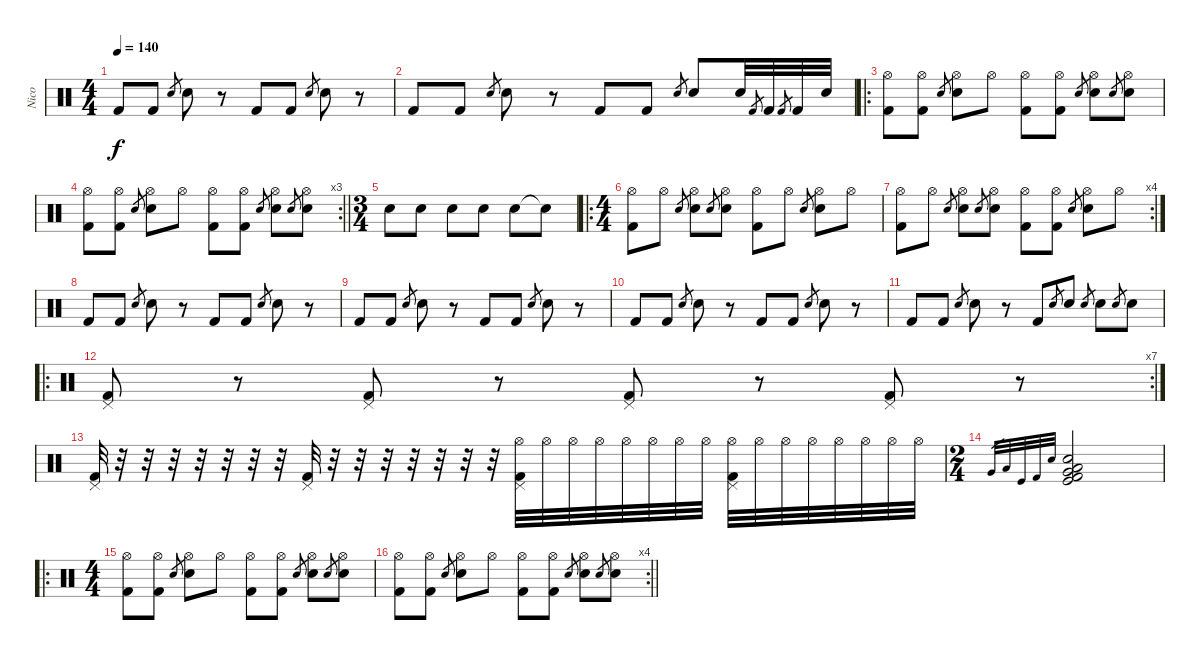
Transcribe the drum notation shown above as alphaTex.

\track ("Nico" "Nico") {instrument percussion}
\staff {score}
\articulation defaults
\ts (4 4)
\tempo 140
\clef neutral
\ks c "Kick (hit) 2".8{dy f} "Kick (hit) 2".8 "Snare (hit) 2".8{gr} "Snare (hit) 2".8
r.8 "Kick (hit) 2".8 "Kick (hit) 2".8 "Snare (hit) 2".8{gr} "Snare (hit) 2".8 r.8 |
"Kick (hit) 2".8 "Kick (hit) 2".8 "Snare (hit) 2".8{gr} "Snare (hit) 2".8 r.8 "Kick (hit) 2".8 "Kick (hit) 2".8 "Snare (hit) 2".8{gr} "Snare (hit) 2".8 "Snare (hit) 2".32 "Kick (hit) 2".8{gr} "Kick (hit) 2".32 "Kick (hit) 2".8{gr} "Kick (hit) 2".32 "Snare (hit) 2".32 |
\ro
("Kick (hit) 2" "Hi-Hat (open)").8 ("Kick (hit) 2" "Hi-Hat (open)").8 "Snare (hit) 2".8{gr} ("Snare (hit) 2" "Hi-Hat (open)").8 "Hi-Hat (open)".8 ("Kick (hit) 2" "Hi-Hat (open)").8 ("Kick (hit) 2" "Hi-Hat (open)").8 "Snare (hit) 2".8{gr} ("Snare (hit) 2" "Hi-Hat (open)").8 "Snare (hit) 2".8{gr} ("Snare (hit) 2" "Hi-Hat (open)").8 |
\rc 3
\barLineRight lightlight
("Kick (hit) 2" "Hi-Hat (open)").8 ("Kick (hit) 2" "Hi-Hat (open)").8 "Snare (hit) 2".8{gr} ("Snare (hit) 2" "Hi-Hat (open)").8 "Hi-Hat (open)".8 ("Kick (hit) 2" "Hi-Hat (open)").8 ("Kick (hit) 2" "Hi-Hat (open)").8 "Snare (hit) 2".8{gr} ("Snare (hit) 2" "Hi-Hat (open)").8 "Snare (hit) 2".8{gr} ("Snare (hit) 2" "Hi-Hat (open)").8 |
\ts (3 4)
"Snare (hit) 2".8 "Snare (hit) 2".8 "Snare (hit) 2".8 "Snare (hit) 2".8 "Snare (hit) 2".8 "Snare (hit)"{t}.8 |
\ro
\ts (4 4)
("Hi-Hat (open)" "Kick (hit) 2").8 "Hi-Hat (open)".8 "Snare (hit) 2".8{gr} ("Hi-Hat (open)" "Snare (hit) 2").8 "Snare (hit) 2".8{gr} ("Hi-Hat (open)" "Snare (hit) 2").8 ("Hi-Hat (open)" "Kick (hit) 2").8 "Hi-Hat (open)".8 "Snare (hit) 2".8{gr} ("Hi-Hat (open)" "Snare (hit) 2").8 "Hi-Hat (open)".8 |
\rc 4
("Hi-Hat (open)" "Kick (hit) 2").8 "Hi-Hat (open)".8 "Snare (hit) 2".8{gr} ("Hi-Hat (open)" "Snare (hit) 2").8 "Snare (hit) 2".8{gr} ("Hi-Hat (open)" "Snare (hit) 2").8 ("Hi-Hat (open)" "Kick (hit) 2").8 ("Hi-Hat (open)" "Kick (hit) 2").8 "Snare (hit) 2".8{gr} ("Hi-Hat (open)" "Snare (hit) 2").8 "Hi-Hat (open)".8 |
"Kick (hit) 2".8 "Kick (hit) 2".8 "Snare (hit) 2".8{gr} "Snare (hit) 2".8 r.8 "Kick (hit) 2".8 "Kick (hit) 2".8 "Snare (hit) 2".8{gr} "Snare (hit) 2".8 r.8 |
"Kick (hit) 2".8 "Kick (hit) 2".8 "Snare (hit) 2".8{gr} "Snare (hit) 2".8 r.8 "Kick (hit) 2".8 "Kick (hit) 2".8 "Snare (hit) 2".8{gr} "Snare (hit) 2".8 r.8 |
"Kick (hit) 2".8 "Kick (hit) 2".8 "Snare (hit) 2".8{gr} "Snare (hit) 2".8 r.8 "Kick (hit) 2".8 "Kick (hit) 2".8 "Snare (hit) 2".8{gr} "Snare (hit) 2".8 r.8 |
"Kick (hit) 2".8 "Kick (hit) 2".8 "Snare (hit) 2".8{gr} "Snare (hit) 2".8 r.8 "Kick (hit) 2".8 "Snare (hit) 2".8{gr} "Snare (hit) 2".8 "Snare (hit) 2".8{gr} "Snare (hit) 2".8 "Snare (hit) 2".8{gr} "Snare (hit) 2".8 |
\ro
\rc 7
("Kick (hit) 2" "Pedal Hi-Hat (hit)").8 r.8 ("Kick (hit) 2" "Pedal Hi-Hat (hit)").8 r.8 ("Kick (hit) 2" "Pedal Hi-Hat (hit)").8 r.8 ("Kick (hit) 2" "Pedal Hi-Hat (hit)").8 r.8 |
("Kick (hit) 2" "Pedal Hi-Hat (hit)").32 r.32 r.32 r.32 r.32 r.32 r.32 r.32 ("Kick (hit) 2" "Pedal Hi-Hat (hit)").32 r.32 r.32 r.32 r.32 r.32 r.32 r.32 ("Kick (hit) 2" "Pedal Hi-Hat (hit)" "Hi-Hat (open)").32 "Hi-Hat (open)".32 "Hi-Hat (open)".32 "Hi-Hat (open)".32 "Hi-Hat (open)".32 "Hi-Hat (open)".32 "Hi-Hat (open)".32 "Hi-Hat (open)".32 ("Kick (hit) 2" "Pedal Hi-Hat (hit)" "Hi-Hat (open)").32 "Hi-Hat (open)".32 "Hi-Hat (open)".32 "Hi-Hat (open)".32 "Hi-Hat (open)".32 "Hi-Hat (open)".32 "Hi-Hat (open)".32 "Hi-Hat (open)".32 |
\ts (2 4)
"Very Low Tom (hit)".32{gr} "Low Floor Tom (hit)".32{gr} "Kick (hit)".32{gr} "Kick (hit) 2".32{gr} "Electric Snare (hit)".32{gr} ("Very Low Tom (hit)" "Low Floor Tom (hit)" "Kick (hit)" "Kick (hit) 2" "Electric Snare (hit)").2 |
\ro
\ts (4 4)
("Kick (hit) 2" "Hi-Hat (open)").8 ("Kick (hit) 2" "Hi-Hat (open)").8 "Snare (hit) 2".8{gr} ("Snare (hit) 2" "Hi-Hat (open)").8 "Hi-Hat (open)".8 ("Kick (hit) 2" "Hi-Hat (open)").8 ("Kick (hit) 2" "Hi-Hat (open)").8 "Snare (hit) 2".8{gr} ("Snare (hit) 2" "Hi-Hat (open)").8 "Snare (hit) 2".8{gr} ("Snare (hit) 2" "Hi-Hat (open)").8 |
\rc 4
\barLineRight lightlight
("Kick (hit) 2" "Hi-Hat (open)").8 ("Kick (hit) 2" "Hi-Hat (open)").8 "Snare (hit) 2".8{gr} ("Snare (hit) 2" "Hi-Hat (open)").8 "Hi-Hat (open)".8 ("Kick (hit) 2" "Hi-Hat (open)").8 ("Kick (hit) 2" "Hi-Hat (open)").8 "Snare (hit) 2".8{gr} ("Snare (hit) 2" "Hi-Hat (open)").8 "Snare (hit) 2".8{gr} ("Snare (hit) 2" "Hi-Hat (open)").8
